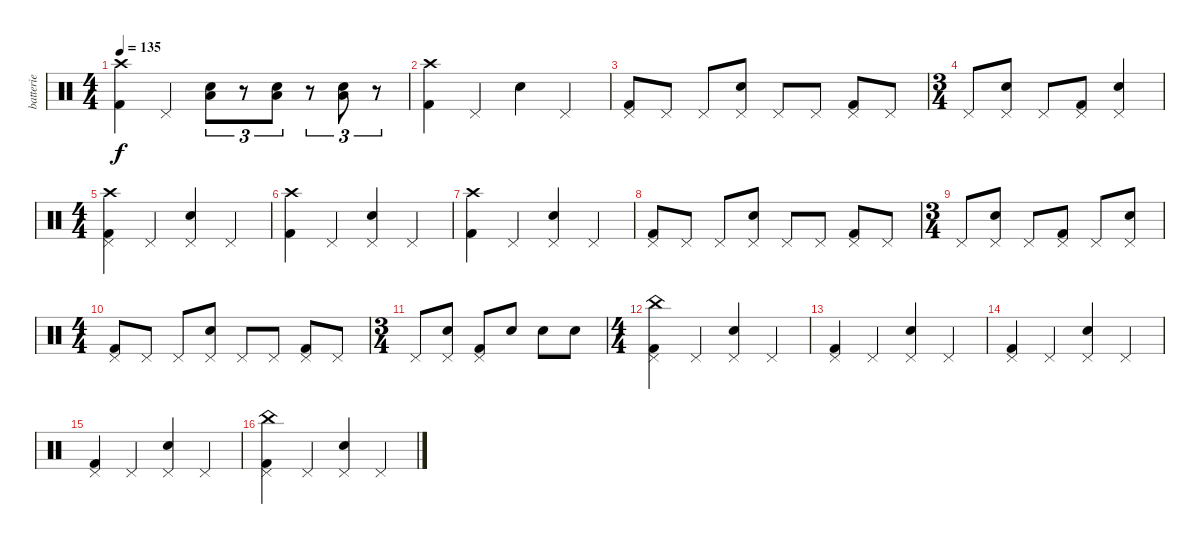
\track ("batterie" "batterie") {instrument percussion}
\staff {score}
\articulation defaults
\ts (4 4)
\tempo 135
\clef neutral
\ks c
("Crash high (hit)" "Kick (hit) 2").4{dy f} "Pedal Hi-Hat (hit)".4 ("Low Tom (hit)" "Snare (hit) 2").8{tu (3 2)} r.8{tu (3 2)} ("Low Tom (hit)" "Snare (hit) 2").8{tu (3 2)} r.8{tu (3 2)} ("Low Tom (hit)" "Snare (hit) 2").8{tu (3 2)} r.8{tu (3 2)} |
("Crash high (hit)" "Kick (hit) 2").4 "Pedal Hi-Hat (hit)".4 "Snare (hit) 2".4 "Pedal Hi-Hat (hit)".4 |
("Kick (hit) 2" "Pedal Hi-Hat (hit)").8 "Pedal Hi-Hat (hit)".8 "Pedal Hi-Hat (hit)".8 ("Snare (hit) 2" "Pedal Hi-Hat (hit)").8 "Pedal Hi-Hat (hit)".8 "Pedal Hi-Hat (hit)".8 ("Kick (hit) 2" "Pedal Hi-Hat (hit)").8 "Pedal Hi-Hat (hit)".8 |
\ts (3 4)
"Pedal Hi-Hat (hit)".8 ("Snare (hit) 2" "Pedal Hi-Hat (hit)").8 "Pedal Hi-Hat (hit)".8 ("Kick (hit) 2" "Pedal Hi-Hat (hit)").8 ("Snare (hit) 2" "Pedal Hi-Hat (hit)").4 |
\ts (4 4)
("Crash high (hit)" "Kick (hit) 2" "Pedal Hi-Hat (hit)").4 "Pedal Hi-Hat (hit)".4 ("Snare (hit) 2" "Pedal Hi-Hat (hit)").4 "Pedal Hi-Hat (hit)".4 |
("Crash high (hit)" "Kick (hit) 2").4 "Pedal Hi-Hat (hit)".4 ("Snare (hit) 2" "Pedal Hi-Hat (hit)").4 "Pedal Hi-Hat (hit)".4 |
("Crash high (hit)" "Kick (hit) 2").4 "Pedal Hi-Hat (hit)".4 ("Snare (hit) 2" "Pedal Hi-Hat (hit)").4 "Pedal Hi-Hat (hit)".4 |
("Kick (hit) 2" "Pedal Hi-Hat (hit)").8 "Pedal Hi-Hat (hit)".8 "Pedal Hi-Hat (hit)".8 ("Snare (hit) 2" "Pedal Hi-Hat (hit)").8 "Pedal Hi-Hat (hit)".8 "Pedal Hi-Hat (hit)".8 ("Kick (hit) 2" "Pedal Hi-Hat (hit)").8 "Pedal Hi-Hat (hit)".8 |
\ts (3 4)
"Pedal Hi-Hat (hit)".8 ("Snare (hit) 2" "Pedal Hi-Hat (hit)").8 "Pedal Hi-Hat (hit)".8 ("Kick (hit) 2" "Pedal Hi-Hat (hit)").8 "Pedal Hi-Hat (hit)".8 ("Snare (hit) 2" "Pedal Hi-Hat (hit)").8 |
\ts (4 4)
("Kick (hit) 2" "Pedal Hi-Hat (hit)").8 "Pedal Hi-Hat (hit)".8 "Pedal Hi-Hat (hit)".8 ("Snare (hit) 2" "Pedal Hi-Hat (hit)").8 "Pedal Hi-Hat (hit)".8 "Pedal Hi-Hat (hit)".8 ("Kick (hit) 2" "Pedal Hi-Hat (hit)").8 "Pedal Hi-Hat (hit)".8 |
\ts (3 4)
"Pedal Hi-Hat (hit)".8 ("Snare (hit) 2" "Pedal Hi-Hat (hit)").8 ("Kick (hit) 2" "Pedal Hi-Hat (hit)").8 "Snare (hit) 2".8 "Snare (hit) 2".8 "Snare (hit) 2".8 |
\ts (4 4)
("China (hit)" "Kick (hit) 2" "Pedal Hi-Hat (hit)").4 "Pedal Hi-Hat (hit)".4 ("Snare (hit) 2" "Pedal Hi-Hat (hit)").4 "Pedal Hi-Hat (hit)".4 |
("Kick (hit) 2" "Pedal Hi-Hat (hit)").4 "Pedal Hi-Hat (hit)".4 ("Snare (hit) 2" "Pedal Hi-Hat (hit)").4 "Pedal Hi-Hat (hit)".4 |
("Kick (hit) 2" "Pedal Hi-Hat (hit)").4 "Pedal Hi-Hat (hit)".4 ("Snare (hit) 2" "Pedal Hi-Hat (hit)").4 "Pedal Hi-Hat (hit)".4 |
("Kick (hit) 2" "Pedal Hi-Hat (hit)").4 "Pedal Hi-Hat (hit)".4 ("Snare (hit) 2" "Pedal Hi-Hat (hit)").4 "Pedal Hi-Hat (hit)".4 |
("China (hit)" "Kick (hit) 2" "Pedal Hi-Hat (hit)").4 "Pedal Hi-Hat (hit)".4 ("Snare (hit) 2" "Pedal Hi-Hat (hit)").4 "Pedal Hi-Hat (hit)".4
